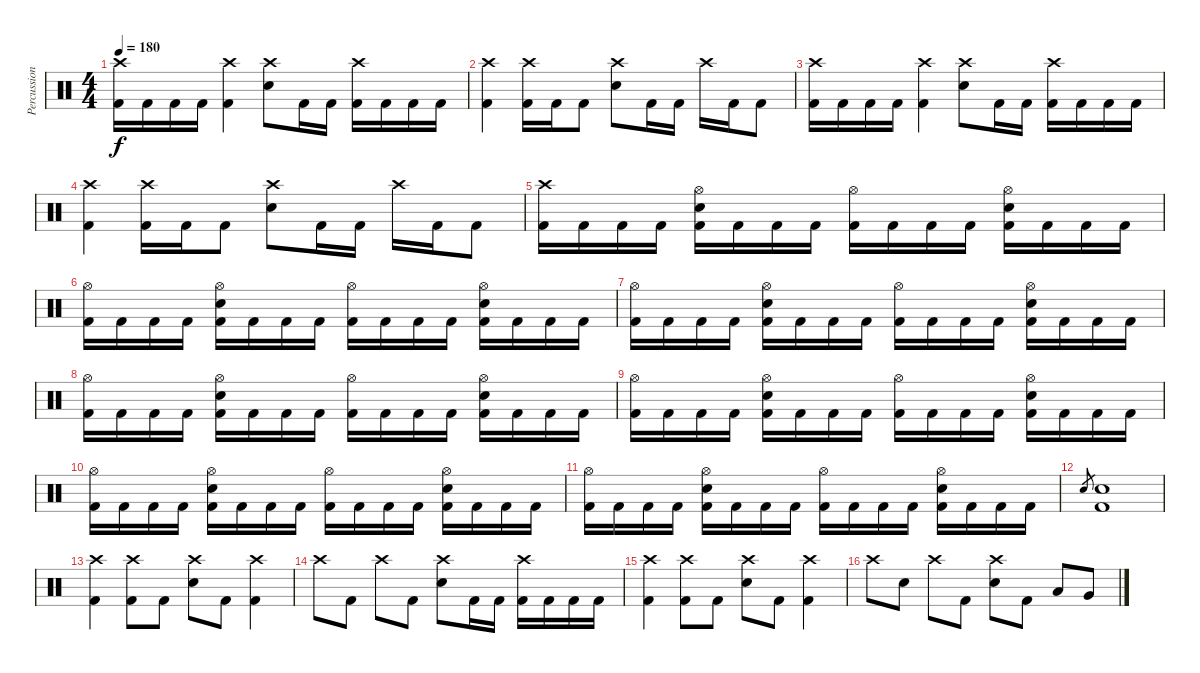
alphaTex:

\track ("Percussion" "Percussion") {instrument percussion}
\staff {score}
\articulation defaults
\ts (4 4)
\tempo 180
\clef neutral
\ks c
("Crash high (hit)" "Kick (hit) 2").16{dy f} "Kick (hit) 2".16 "Kick (hit) 2".16 "Kick (hit) 2".16 ("Crash high (hit)" "Kick (hit) 2").4 ("Crash high (hit)" "Electric Snare (hit)").8 "Kick (hit) 2".16 "Kick (hit) 2".16 ("Crash high (hit)" "Kick (hit) 2").16 "Kick (hit) 2".16 "Kick (hit) 2".16 "Kick (hit) 2".16 |
("Crash high (hit)" "Kick (hit) 2").4 ("Crash high (hit)" "Kick (hit) 2").16 "Kick (hit) 2".16 "Kick (hit) 2".8 ("Crash high (hit)" "Electric Snare (hit)").8 "Kick (hit) 2".16 "Kick (hit) 2".16 "Crash high (hit)".16 "Kick (hit) 2".16 "Kick (hit) 2".8 |
("Crash high (hit)" "Kick (hit) 2").16 "Kick (hit) 2".16 "Kick (hit) 2".16 "Kick (hit) 2".16 ("Crash high (hit)" "Kick (hit) 2").4 ("Crash high (hit)" "Electric Snare (hit)").8 "Kick (hit) 2".16 "Kick (hit) 2".16 ("Crash high (hit)" "Kick (hit) 2").16 "Kick (hit) 2".16 "Kick (hit) 2".16 "Kick (hit) 2".16 |
("Crash high (hit)" "Kick (hit) 2").4 ("Crash high (hit)" "Kick (hit) 2").16 "Kick (hit) 2".16 "Kick (hit) 2".8 ("Crash high (hit)" "Electric Snare (hit)").8 "Kick (hit) 2".16 "Kick (hit) 2".16 "Crash high (hit)".16 "Kick (hit) 2".16 "Kick (hit) 2".8 |
("Crash high (hit)" "Kick (hit) 2").16 "Kick (hit) 2".16 "Kick (hit) 2".16 "Kick (hit) 2".16 ("Hi-Hat (open)" "Electric Snare (hit)" "Kick (hit) 2").16 "Kick (hit) 2".16 "Kick (hit) 2".16 "Kick (hit) 2".16 ("Hi-Hat (open)" "Kick (hit) 2").16 "Kick (hit) 2".16 "Kick (hit) 2".16 "Kick (hit) 2".16 ("Hi-Hat (open)" "Electric Snare (hit)" "Kick (hit) 2").16 "Kick (hit) 2".16 "Kick (hit) 2".16 "Kick (hit) 2".16 |
("Hi-Hat (open)" "Kick (hit) 2").16 "Kick (hit) 2".16 "Kick (hit) 2".16 "Kick (hit) 2".16 ("Hi-Hat (open)" "Electric Snare (hit)" "Kick (hit) 2").16 "Kick (hit) 2".16 "Kick (hit) 2".16 "Kick (hit) 2".16 ("Hi-Hat (open)" "Kick (hit) 2").16 "Kick (hit) 2".16 "Kick (hit) 2".16 "Kick (hit) 2".16 ("Hi-Hat (open)" "Electric Snare (hit)" "Kick (hit) 2").16 "Kick (hit) 2".16 "Kick (hit) 2".16 "Kick (hit) 2".16 |
("Hi-Hat (open)" "Kick (hit) 2").16 "Kick (hit) 2".16 "Kick (hit) 2".16 "Kick (hit) 2".16 ("Hi-Hat (open)" "Electric Snare (hit)" "Kick (hit) 2").16 "Kick (hit) 2".16 "Kick (hit) 2".16 "Kick (hit) 2".16 ("Hi-Hat (open)" "Kick (hit) 2").16 "Kick (hit) 2".16 "Kick (hit) 2".16 "Kick (hit) 2".16 ("Hi-Hat (open)" "Electric Snare (hit)" "Kick (hit) 2").16 "Kick (hit) 2".16 "Kick (hit) 2".16 "Kick (hit) 2".16 |
("Hi-Hat (open)" "Kick (hit) 2").16 "Kick (hit) 2".16 "Kick (hit) 2".16 "Kick (hit) 2".16 ("Hi-Hat (open)" "Electric Snare (hit)" "Kick (hit) 2").16 "Kick (hit) 2".16 "Kick (hit) 2".16 "Kick (hit) 2".16 ("Hi-Hat (open)" "Kick (hit) 2").16 "Kick (hit) 2".16 "Kick (hit) 2".16 "Kick (hit) 2".16 ("Hi-Hat (open)" "Electric Snare (hit)" "Kick (hit) 2").16 "Kick (hit) 2".16 "Kick (hit) 2".16 "Kick (hit) 2".16 |
("Hi-Hat (open)" "Kick (hit) 2").16 "Kick (hit) 2".16 "Kick (hit) 2".16 "Kick (hit) 2".16 ("Hi-Hat (open)" "Electric Snare (hit)" "Kick (hit) 2").16 "Kick (hit) 2".16 "Kick (hit) 2".16 "Kick (hit) 2".16 ("Hi-Hat (open)" "Kick (hit) 2").16 "Kick (hit) 2".16 "Kick (hit) 2".16 "Kick (hit) 2".16 ("Hi-Hat (open)" "Electric Snare (hit)" "Kick (hit) 2").16 "Kick (hit) 2".16 "Kick (hit) 2".16 "Kick (hit) 2".16 |
("Hi-Hat (open)" "Kick (hit) 2").16 "Kick (hit) 2".16 "Kick (hit) 2".16 "Kick (hit) 2".16 ("Hi-Hat (open)" "Electric Snare (hit)" "Kick (hit) 2").16 "Kick (hit) 2".16 "Kick (hit) 2".16 "Kick (hit) 2".16 ("Hi-Hat (open)" "Kick (hit) 2").16 "Kick (hit) 2".16 "Kick (hit) 2".16 "Kick (hit) 2".16 ("Hi-Hat (open)" "Electric Snare (hit)" "Kick (hit) 2").16 "Kick (hit) 2".16 "Kick (hit) 2".16 "Kick (hit) 2".16 |
("Hi-Hat (open)" "Kick (hit) 2").16 "Kick (hit) 2".16 "Kick (hit) 2".16 "Kick (hit) 2".16 ("Hi-Hat (open)" "Electric Snare (hit)" "Kick (hit) 2").16 "Kick (hit) 2".16 "Kick (hit) 2".16 "Kick (hit) 2".16 ("Hi-Hat (open)" "Kick (hit) 2").16 "Kick (hit) 2".16 "Kick (hit) 2".16 "Kick (hit) 2".16 ("Hi-Hat (open)" "Electric Snare (hit)" "Kick (hit) 2").16 "Kick (hit) 2".16 "Kick (hit) 2".16 "Kick (hit) 2".16 |
"Electric Snare (hit)".8{gr} ("Electric Snare (hit)" "Kick (hit) 2").1 |
("Crash high (hit)" "Kick (hit) 2").4 ("Crash high (hit)" "Kick (hit) 2").8 "Kick (hit) 2".8 ("Crash high (hit)" "Electric Snare (hit)").8 "Kick (hit) 2".8 ("Crash high (hit)" "Kick (hit) 2").4 |
"Crash high (hit)".8 "Kick (hit) 2".8 "Crash high (hit)".8 "Kick (hit) 2".8 ("Crash high (hit)" "Electric Snare (hit)").8 "Kick (hit) 2".16 "Kick (hit) 2".16 ("Crash high (hit)" "Kick (hit) 2").16 "Kick (hit) 2".16 "Kick (hit) 2".16 "Kick (hit) 2".16 |
("Crash high (hit)" "Kick (hit) 2").4 ("Crash high (hit)" "Kick (hit) 2").8 "Kick (hit) 2".8 ("Crash high (hit)" "Electric Snare (hit)").8 "Kick (hit) 2".8 ("Crash high (hit)" "Kick (hit) 2").4 |
"Crash high (hit)".8 "Electric Snare (hit)".8 "Crash high (hit)".8 "Kick (hit) 2".8 ("Crash high (hit)" "Electric Snare (hit)").8 "Kick (hit) 2".8 "Low Tom (hit)".8 "Very Low Tom (hit)".8
